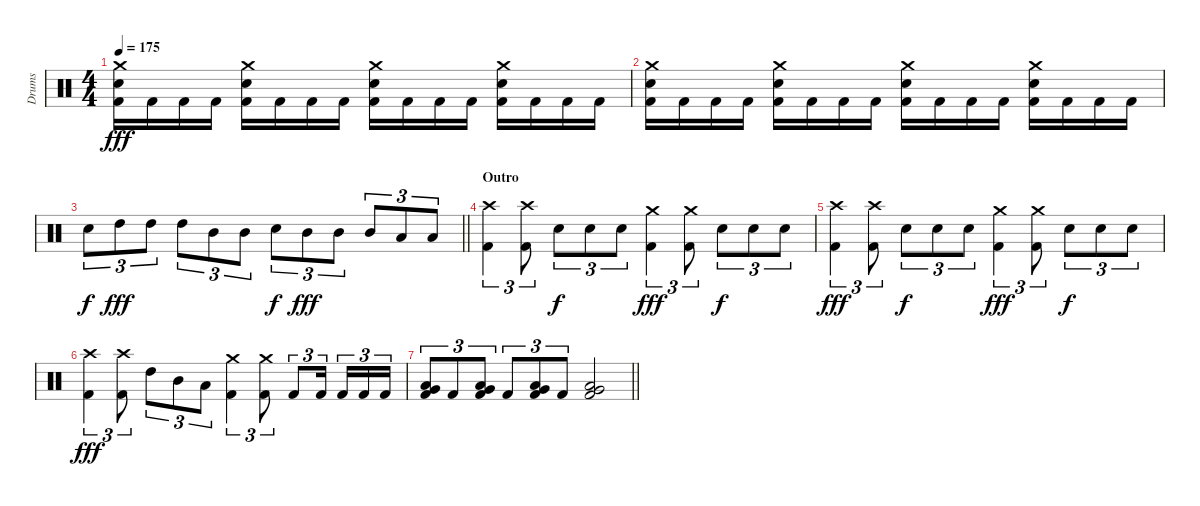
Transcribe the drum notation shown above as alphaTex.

\track ("Drums" "Drums") {instrument percussion}
\staff {score}
\articulation defaults
\ts (4 4)
\tempo 175
\clef neutral
\ks c
("Crash medium (hit)" "Electric Snare (hit)" "Kick (hit) 2").16{dy fff} "Kick (hit) 2".16 "Kick (hit) 2".16 "Kick (hit) 2".16 ("Crash medium (hit)" "Electric Snare (hit)" "Kick (hit) 2").16 "Kick (hit) 2".16 "Kick (hit) 2".16 "Kick (hit) 2".16 ("Crash medium (hit)" "Electric Snare (hit)" "Kick (hit) 2").16 "Kick (hit) 2".16 "Kick (hit) 2".16 "Kick (hit) 2".16 ("Crash medium (hit)" "Electric Snare (hit)" "Kick (hit) 2").16 "Kick (hit) 2".16 "Kick (hit) 2".16 "Kick (hit) 2".16 |
("Crash medium (hit)" "Electric Snare (hit)" "Kick (hit) 2").16 "Kick (hit) 2".16 "Kick (hit) 2".16 "Kick (hit) 2".16 ("Crash medium (hit)" "Electric Snare (hit)" "Kick (hit) 2").16 "Kick (hit) 2".16 "Kick (hit) 2".16 "Kick (hit) 2".16 ("Crash medium (hit)" "Electric Snare (hit)" "Kick (hit) 2").16 "Kick (hit) 2".16 "Kick (hit) 2".16 "Kick (hit) 2".16 ("Crash medium (hit)" "Electric Snare (hit)" "Kick (hit) 2").16 "Kick (hit) 2".16 "Kick (hit) 2".16 "Kick (hit) 2".16 |
\barLineRight lightlight "Electric Snare (hit)".8{tu (3 2) dy f} "High Tom (hit)".8{tu (3 2) dy fff} "High Tom (hit)".8{tu (3 2)} "High Tom (hit)".8{tu (3 2)} "Mid Tom (hit)".8{tu (3 2)} "Mid Tom (hit)".8{tu (3 2)} "Electric Snare (hit)".8{tu (3 2) dy f} "Mid Tom (hit)".8{tu (3 2) dy fff} "Mid Tom (hit)".8{tu (3 2)} "Mid Tom (hit)".8{tu (3 2)} "Low Tom (hit)".8{tu (3 2)} "Low Tom (hit)".8{tu (3 2)}
|
\section ("" "Outro")
("Crash high (hit)" "Kick (hit) 2").4{tu (3 2)} ("Crash high (hit)" "Kick (hit) 2").8{tu (3 2)} "Electric Snare (hit)".8{tu (3 2) dy f} "Electric Snare (hit)".8{tu (3 2)} "Electric Snare (hit)".8{tu (3 2)} ("Crash medium (hit)" "Kick (hit) 2").4{tu (3 2) dy fff} ("Crash medium (hit)" "Kick (hit) 2").8{tu (3 2)} "Electric Snare (hit)".8{tu (3 2) dy f} "Electric Snare (hit)".8{tu (3 2)} "Electric Snare (hit)".8{tu (3 2)} |
("Crash high (hit)" "Kick (hit) 2").4{tu (3 2) dy fff} ("Crash high (hit)" "Kick (hit) 2").8{tu (3 2)} "Electric Snare (hit)".8{tu (3 2) dy f} "Electric Snare (hit)".8{tu (3 2)} "Electric Snare (hit)".8{tu (3 2)} ("Crash medium (hit)" "Kick (hit) 2").4{tu (3 2) dy fff} ("Crash medium (hit)" "Kick (hit) 2").8{tu (3 2)} "Electric Snare (hit)".8{tu (3 2) dy f} "Electric Snare (hit)".8{tu (3 2)} "Electric Snare (hit)".8{tu (3 2)} |
("Crash high (hit)" "Kick (hit) 2").4{tu (3 2) dy fff} ("Crash high (hit)" "Kick (hit) 2").8{tu (3 2)} "High Tom (hit)".8{tu (3 2)} "Mid Tom (hit)".8{tu (3 2)} "Low Tom (hit)".8{tu (3 2)} ("Crash medium (hit)" "Kick (hit) 2").4{tu (3 2)} ("Crash medium (hit)" "Kick (hit) 2").8{tu (3 2)} "Kick (hit) 2".8{tu (3 2)} "Kick (hit) 2".16{tu (3 2) beam splitsecondary} "Kick (hit) 2".16{tu (3 2)} "Kick (hit) 2".16{tu (3 2)} "Kick (hit) 2".16{tu (3 2)} |
\barLineRight lightlight
("Very Low Tom (hit)" "Low Floor Tom (hit)" "Kick (hit) 2").8{tu (3 2)} "Kick (hit) 2".8{tu (3 2)} ("Very Low Tom (hit)" "Low Floor Tom (hit)" "Kick (hit) 2").8{tu (3 2)} "Kick (hit) 2".8{tu (3 2)} ("Very Low Tom (hit)" "Low Floor Tom (hit)" "Kick (hit) 2").8{tu (3 2)} "Kick (hit) 2".8{tu (3 2)} ("Very Low Tom (hit)" "Low Floor Tom (hit)" "Kick (hit) 2").2
